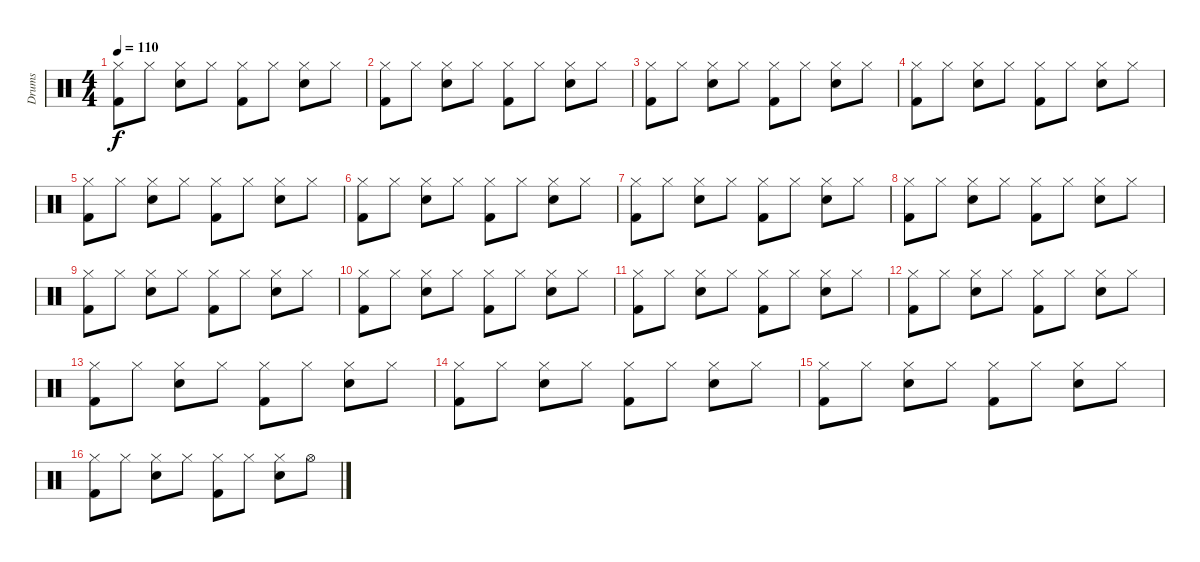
\track ("Drums" "Drums") {instrument percussion}
\staff {score}
\articulation defaults
\ts (4 4)
\tempo 110
\clef neutral
\ks c
("Hi-Hat (closed)" "Kick (hit) 2").8{dy f} "Hi-Hat (closed)".8 ("Hi-Hat (closed)" "Electric Snare (hit)").8 "Hi-Hat (closed)".8 ("Hi-Hat (closed)" "Kick (hit) 2").8 "Hi-Hat (closed)".8 ("Hi-Hat (closed)" "Electric Snare (hit)").8 "Hi-Hat (closed)".8 |
("Hi-Hat (closed)" "Kick (hit) 2").8 "Hi-Hat (closed)".8 ("Hi-Hat (closed)" "Electric Snare (hit)").8 "Hi-Hat (closed)".8 ("Hi-Hat (closed)" "Kick (hit) 2").8 "Hi-Hat (closed)".8 ("Hi-Hat (closed)" "Electric Snare (hit)").8 "Hi-Hat (closed)".8 |
("Hi-Hat (closed)" "Kick (hit) 2").8 "Hi-Hat (closed)".8 ("Hi-Hat (closed)" "Electric Snare (hit)").8 "Hi-Hat (closed)".8 ("Hi-Hat (closed)" "Kick (hit) 2").8 "Hi-Hat (closed)".8 ("Hi-Hat (closed)" "Electric Snare (hit)").8 "Hi-Hat (closed)".8 |
("Hi-Hat (closed)" "Kick (hit) 2").8 "Hi-Hat (closed)".8 ("Hi-Hat (closed)" "Electric Snare (hit)").8 "Hi-Hat (closed)".8 ("Hi-Hat (closed)" "Kick (hit) 2").8 "Hi-Hat (closed)".8 ("Hi-Hat (closed)" "Electric Snare (hit)").8 "Hi-Hat (closed)".8 |
("Hi-Hat (closed)" "Kick (hit) 2").8 "Hi-Hat (closed)".8 ("Hi-Hat (closed)" "Electric Snare (hit)").8 "Hi-Hat (closed)".8 ("Hi-Hat (closed)" "Kick (hit) 2").8 "Hi-Hat (closed)".8 ("Hi-Hat (closed)" "Electric Snare (hit)").8 "Hi-Hat (closed)".8 |
("Hi-Hat (closed)" "Kick (hit) 2").8 "Hi-Hat (closed)".8 ("Hi-Hat (closed)" "Electric Snare (hit)").8 "Hi-Hat (closed)".8 ("Hi-Hat (closed)" "Kick (hit) 2").8 "Hi-Hat (closed)".8 ("Hi-Hat (closed)" "Electric Snare (hit)").8 "Hi-Hat (closed)".8 |
("Hi-Hat (closed)" "Kick (hit) 2").8 "Hi-Hat (closed)".8 ("Hi-Hat (closed)" "Electric Snare (hit)").8 "Hi-Hat (closed)".8 ("Hi-Hat (closed)" "Kick (hit) 2").8 "Hi-Hat (closed)".8 ("Hi-Hat (closed)" "Electric Snare (hit)").8 "Hi-Hat (closed)".8 |
("Hi-Hat (closed)" "Kick (hit) 2").8 "Hi-Hat (closed)".8 ("Hi-Hat (closed)" "Electric Snare (hit)").8 "Hi-Hat (closed)".8 ("Hi-Hat (closed)" "Kick (hit) 2").8 "Hi-Hat (closed)".8 ("Hi-Hat (closed)" "Electric Snare (hit)").8 "Hi-Hat (closed)".8 |
("Hi-Hat (closed)" "Kick (hit) 2").8 "Hi-Hat (closed)".8 ("Hi-Hat (closed)" "Electric Snare (hit)").8 "Hi-Hat (closed)".8 ("Hi-Hat (closed)" "Kick (hit) 2").8 "Hi-Hat (closed)".8 ("Hi-Hat (closed)" "Electric Snare (hit)").8 "Hi-Hat (closed)".8 |
("Hi-Hat (closed)" "Kick (hit) 2").8 "Hi-Hat (closed)".8 ("Hi-Hat (closed)" "Electric Snare (hit)").8 "Hi-Hat (closed)".8 ("Hi-Hat (closed)" "Kick (hit) 2").8 "Hi-Hat (closed)".8 ("Hi-Hat (closed)" "Electric Snare (hit)").8 "Hi-Hat (closed)".8 |
("Hi-Hat (closed)" "Kick (hit) 2").8 "Hi-Hat (closed)".8 ("Hi-Hat (closed)" "Electric Snare (hit)").8 "Hi-Hat (closed)".8 ("Hi-Hat (closed)" "Kick (hit) 2").8 "Hi-Hat (closed)".8 ("Hi-Hat (closed)" "Electric Snare (hit)").8 "Hi-Hat (closed)".8 |
("Hi-Hat (closed)" "Kick (hit) 2").8 "Hi-Hat (closed)".8 ("Hi-Hat (closed)" "Electric Snare (hit)").8 "Hi-Hat (closed)".8 ("Hi-Hat (closed)" "Kick (hit) 2").8 "Hi-Hat (closed)".8 ("Hi-Hat (closed)" "Electric Snare (hit)").8 "Hi-Hat (closed)".8 |
("Hi-Hat (closed)" "Kick (hit) 2").8 "Hi-Hat (closed)".8 ("Hi-Hat (closed)" "Electric Snare (hit)").8 "Hi-Hat (closed)".8 ("Hi-Hat (closed)" "Kick (hit) 2").8 "Hi-Hat (closed)".8 ("Hi-Hat (closed)" "Electric Snare (hit)").8 "Hi-Hat (closed)".8 |
("Hi-Hat (closed)" "Kick (hit) 2").8 "Hi-Hat (closed)".8 ("Hi-Hat (closed)" "Electric Snare (hit)").8 "Hi-Hat (closed)".8 ("Hi-Hat (closed)" "Kick (hit) 2").8 "Hi-Hat (closed)".8 ("Hi-Hat (closed)" "Electric Snare (hit)").8 "Hi-Hat (closed)".8 |
("Hi-Hat (closed)" "Kick (hit) 2").8 "Hi-Hat (closed)".8 ("Hi-Hat (closed)" "Electric Snare (hit)").8 "Hi-Hat (closed)".8 ("Hi-Hat (closed)" "Kick (hit) 2").8 "Hi-Hat (closed)".8 ("Hi-Hat (closed)" "Electric Snare (hit)").8 "Hi-Hat (closed)".8 |
("Hi-Hat (closed)" "Kick (hit) 2").8 "Hi-Hat (closed)".8 ("Hi-Hat (closed)" "Electric Snare (hit)").8 "Hi-Hat (closed)".8 ("Hi-Hat (closed)" "Kick (hit) 2").8 "Hi-Hat (closed)".8 ("Hi-Hat (closed)" "Electric Snare (hit)").8 "Hi-Hat (open)".8
